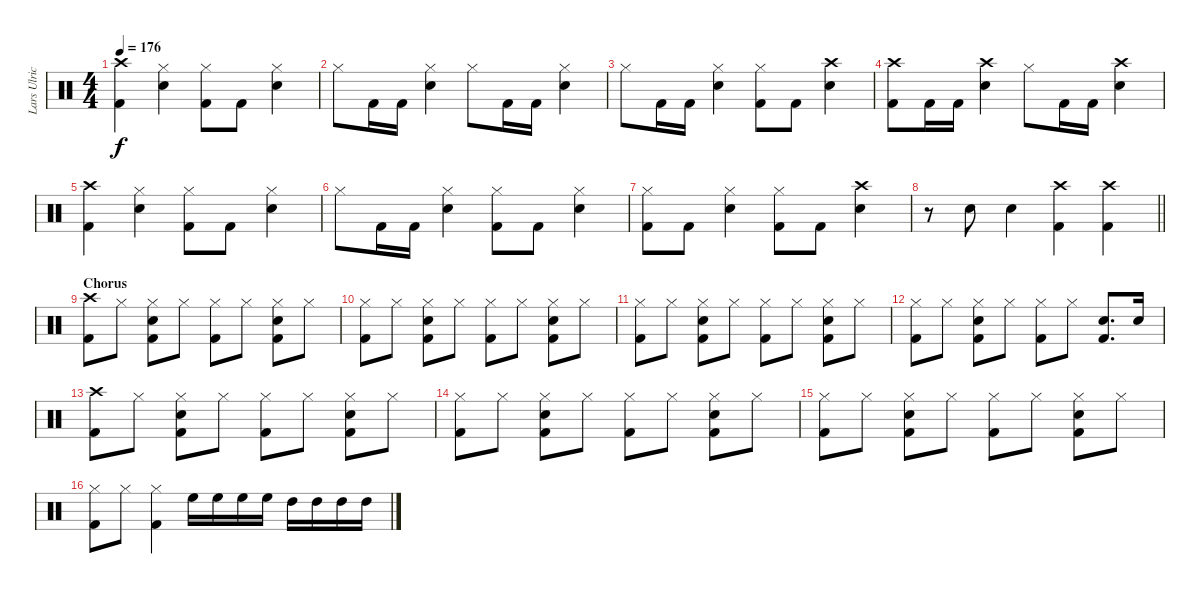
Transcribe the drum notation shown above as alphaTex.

\track ("Lars Ulrich" "Lars Ulric") {instrument percussion}
\staff {score}
\articulation defaults
\ts (4 4)
\tempo 176
\clef neutral
\ks c
("Crash high (hit)" "Kick (hit) 2").4{dy f} ("Hi-Hat (closed)" "Snare (hit) 2").4 ("Hi-Hat (closed)" "Kick (hit) 2").8 "Kick (hit) 2".8 ("Hi-Hat (closed)" "Snare (hit) 2").4 |
"Hi-Hat (closed)".8 "Kick (hit) 2".16 "Kick (hit) 2".16 ("Hi-Hat (closed)" "Snare (hit) 2").4 "Hi-Hat (closed)".8 "Kick (hit) 2".16 "Kick (hit) 2".16 ("Hi-Hat (closed)" "Snare (hit) 2").4 |
"Hi-Hat (closed)".8 "Kick (hit) 2".16 "Kick (hit) 2".16 ("Hi-Hat (closed)" "Snare (hit) 2").4 ("Hi-Hat (closed)" "Kick (hit) 2").8 "Kick (hit) 2".8 ("Crash high (hit)" "Snare (hit) 2").4 |
("Crash high (hit)" "Kick (hit) 2").8 "Kick (hit) 2".16 "Kick (hit) 2".16 ("Crash high (hit)" "Snare (hit) 2").4 "Hi-Hat (closed)".8 "Kick (hit) 2".16 "Kick (hit) 2".16 ("Crash high (hit)" "Snare (hit) 2").4 |
("Crash high (hit)" "Kick (hit) 2").4 ("Hi-Hat (closed)" "Snare (hit) 2").4 ("Hi-Hat (closed)" "Kick (hit) 2").8 "Kick (hit) 2".8 ("Hi-Hat (closed)" "Snare (hit) 2").4 |
"Hi-Hat (closed)".8 "Kick (hit) 2".16 "Kick (hit) 2".16 ("Hi-Hat (closed)" "Snare (hit) 2").4 ("Hi-Hat (closed)" "Kick (hit) 2").8 "Kick (hit) 2".8 ("Hi-Hat (closed)" "Snare (hit) 2").4 |
("Hi-Hat (closed)" "Kick (hit) 2").8 "Kick (hit) 2".8 ("Hi-Hat (closed)" "Snare (hit) 2").4 ("Hi-Hat (closed)" "Kick (hit) 2").8 "Kick (hit) 2".8 ("Crash high (hit)" "Snare (hit) 2").4 |
\barLineRight lightlight
r.8 "Snare (hit) 2".8 "Snare (hit) 2".4 ("Crash high (hit)" "Kick (hit) 2").4 ("Crash high (hit)" "Kick (hit) 2").4 |
\section ("" "Chorus")
("Crash high (hit)" "Kick (hit) 2").8 "Hi-Hat (closed)".8 ("Hi-Hat (closed)" "Snare (hit) 2" "Kick (hit) 2").8 "Hi-Hat (closed)".8 ("Hi-Hat (closed)" "Kick (hit) 2").8 "Hi-Hat (closed)".8 ("Hi-Hat (closed)" "Snare (hit) 2" "Kick (hit) 2").8 "Hi-Hat (closed)".8 |
("Hi-Hat (closed)" "Kick (hit) 2").8 "Hi-Hat (closed)".8 ("Hi-Hat (closed)" "Snare (hit) 2" "Kick (hit) 2").8 "Hi-Hat (closed)".8 ("Hi-Hat (closed)" "Kick (hit) 2").8 "Hi-Hat (closed)".8 ("Hi-Hat (closed)" "Snare (hit) 2" "Kick (hit) 2").8 "Hi-Hat (closed)".8 |
("Hi-Hat (closed)" "Kick (hit) 2").8 "Hi-Hat (closed)".8 ("Hi-Hat (closed)" "Snare (hit) 2" "Kick (hit) 2").8 "Hi-Hat (closed)".8 ("Hi-Hat (closed)" "Kick (hit) 2").8 "Hi-Hat (closed)".8 ("Hi-Hat (closed)" "Snare (hit) 2" "Kick (hit) 2").8 "Hi-Hat (closed)".8 |
("Hi-Hat (closed)" "Kick (hit) 2").8 "Hi-Hat (closed)".8 ("Hi-Hat (closed)" "Snare (hit) 2" "Kick (hit) 2").8 "Hi-Hat (closed)".8 ("Hi-Hat (closed)" "Kick (hit) 2").8 "Hi-Hat (closed)".8 ("Snare (hit) 2" "Kick (hit) 2").8{d} "Snare (hit) 2".16 |
("Crash high (hit)" "Kick (hit) 2").8 "Hi-Hat (closed)".8 ("Hi-Hat (closed)" "Snare (hit) 2" "Kick (hit) 2").8 "Hi-Hat (closed)".8 ("Hi-Hat (closed)" "Kick (hit) 2").8 "Hi-Hat (closed)".8 ("Hi-Hat (closed)" "Snare (hit) 2" "Kick (hit) 2").8 "Hi-Hat (closed)".8 |
("Hi-Hat (closed)" "Kick (hit) 2").8 "Hi-Hat (closed)".8 ("Hi-Hat (closed)" "Snare (hit) 2" "Kick (hit) 2").8 "Hi-Hat (closed)".8 ("Hi-Hat (closed)" "Kick (hit) 2").8 "Hi-Hat (closed)".8 ("Hi-Hat (closed)" "Snare (hit) 2" "Kick (hit) 2").8 "Hi-Hat (closed)".8 |
("Hi-Hat (closed)" "Kick (hit) 2").8 "Hi-Hat (closed)".8 ("Hi-Hat (closed)" "Snare (hit) 2" "Kick (hit) 2").8 "Hi-Hat (closed)".8 ("Hi-Hat (closed)" "Kick (hit) 2").8 "Hi-Hat (closed)".8 ("Hi-Hat (closed)" "Snare (hit) 2" "Kick (hit) 2").8 "Hi-Hat (closed)".8 |
("Hi-Hat (closed)" "Kick (hit) 2").8 "Hi-Hat (closed)".8 ("Hi-Hat (closed)" "Kick (hit) 2").4 "High Floor Tom (hit)".16 "High Floor Tom (hit)".16 "High Floor Tom (hit)".16 "High Floor Tom (hit)".16 "High Tom (hit)".16 "High Tom (hit)".16 "High Tom (hit)".16 "High Tom (hit)".16
